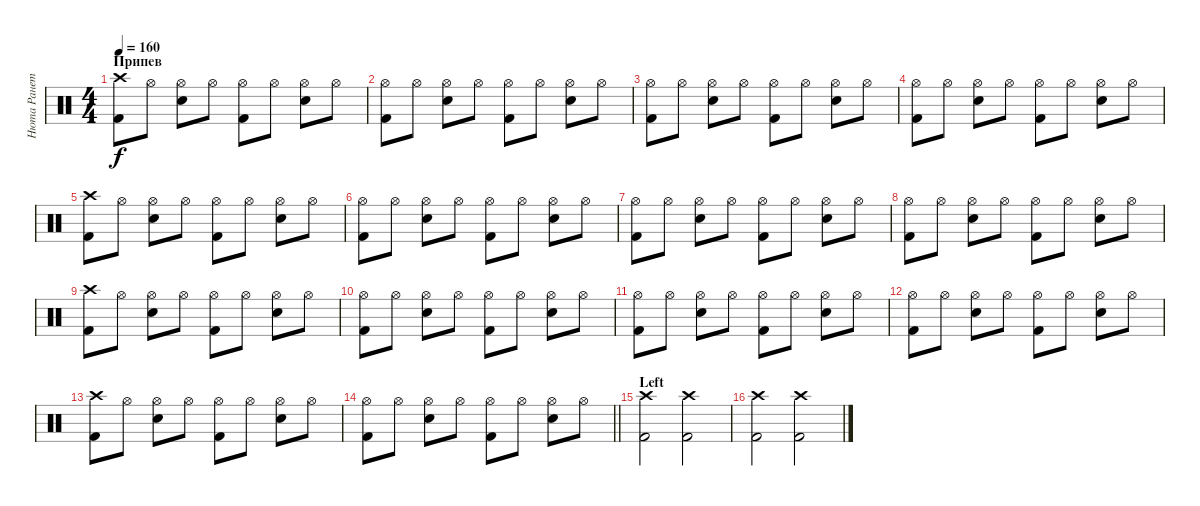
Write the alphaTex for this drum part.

\track ("Нюта Ранетка" "Нюта Ранет") {instrument percussion}
\staff {score}
\articulation defaults
\ts (4 4)
\section ("" "Припев")
\tempo 160
\clef neutral
\ks c
("Crash high (hit)" "Kick (hit) 2").8{dy f} "Hi-Hat (open)".8 ("Hi-Hat (open)" "Snare (hit) 2").8 "Hi-Hat (open)".8 ("Hi-Hat (open)" "Kick (hit) 2").8 "Hi-Hat (open)".8 ("Hi-Hat (open)" "Snare (hit) 2").8 "Hi-Hat (open)".8 |
("Hi-Hat (open)" "Kick (hit) 2").8 "Hi-Hat (open)".8 ("Hi-Hat (open)" "Snare (hit) 2").8 "Hi-Hat (open)".8 ("Hi-Hat (open)" "Kick (hit) 2").8 "Hi-Hat (open)".8 ("Hi-Hat (open)" "Snare (hit) 2").8 "Hi-Hat (open)".8 |
("Hi-Hat (open)" "Kick (hit) 2").8 "Hi-Hat (open)".8 ("Hi-Hat (open)" "Snare (hit) 2").8 "Hi-Hat (open)".8 ("Hi-Hat (open)" "Kick (hit) 2").8 "Hi-Hat (open)".8 ("Hi-Hat (open)" "Snare (hit) 2").8 "Hi-Hat (open)".8 |
("Hi-Hat (open)" "Kick (hit) 2").8 "Hi-Hat (open)".8 ("Hi-Hat (open)" "Snare (hit) 2").8 "Hi-Hat (open)".8 ("Hi-Hat (open)" "Kick (hit) 2").8 "Hi-Hat (open)".8 ("Hi-Hat (open)" "Snare (hit) 2").8 "Hi-Hat (open)".8 |
("Crash high (hit)" "Kick (hit) 2").8 "Hi-Hat (open)".8 ("Hi-Hat (open)" "Snare (hit) 2").8 "Hi-Hat (open)".8 ("Hi-Hat (open)" "Kick (hit) 2").8 "Hi-Hat (open)".8 ("Hi-Hat (open)" "Snare (hit) 2").8 "Hi-Hat (open)".8 |
("Hi-Hat (open)" "Kick (hit) 2").8 "Hi-Hat (open)".8 ("Hi-Hat (open)" "Snare (hit) 2").8 "Hi-Hat (open)".8 ("Hi-Hat (open)" "Kick (hit) 2").8 "Hi-Hat (open)".8 ("Hi-Hat (open)" "Snare (hit) 2").8 "Hi-Hat (open)".8 |
("Hi-Hat (open)" "Kick (hit) 2").8 "Hi-Hat (open)".8 ("Hi-Hat (open)" "Snare (hit) 2").8 "Hi-Hat (open)".8 ("Hi-Hat (open)" "Kick (hit) 2").8 "Hi-Hat (open)".8 ("Hi-Hat (open)" "Snare (hit) 2").8 "Hi-Hat (open)".8 |
("Hi-Hat (open)" "Kick (hit) 2").8 "Hi-Hat (open)".8 ("Hi-Hat (open)" "Snare (hit) 2").8 "Hi-Hat (open)".8 ("Hi-Hat (open)" "Kick (hit) 2").8 "Hi-Hat (open)".8 ("Hi-Hat (open)" "Snare (hit) 2").8 "Hi-Hat (open)".8 |
("Crash high (hit)" "Kick (hit) 2").8 "Hi-Hat (open)".8 ("Hi-Hat (open)" "Snare (hit) 2").8 "Hi-Hat (open)".8 ("Hi-Hat (open)" "Kick (hit) 2").8 "Hi-Hat (open)".8 ("Hi-Hat (open)" "Snare (hit) 2").8 "Hi-Hat (open)".8 |
("Hi-Hat (open)" "Kick (hit) 2").8 "Hi-Hat (open)".8 ("Hi-Hat (open)" "Snare (hit) 2").8 "Hi-Hat (open)".8 ("Hi-Hat (open)" "Kick (hit) 2").8 "Hi-Hat (open)".8 ("Hi-Hat (open)" "Snare (hit) 2").8 "Hi-Hat (open)".8 |
("Hi-Hat (open)" "Kick (hit) 2").8 "Hi-Hat (open)".8 ("Hi-Hat (open)" "Snare (hit) 2").8 "Hi-Hat (open)".8 ("Hi-Hat (open)" "Kick (hit) 2").8 "Hi-Hat (open)".8 ("Hi-Hat (open)" "Snare (hit) 2").8 "Hi-Hat (open)".8 |
("Hi-Hat (open)" "Kick (hit) 2").8 "Hi-Hat (open)".8 ("Hi-Hat (open)" "Snare (hit) 2").8 "Hi-Hat (open)".8 ("Hi-Hat (open)" "Kick (hit) 2").8 "Hi-Hat (open)".8 ("Hi-Hat (open)" "Snare (hit) 2").8 "Hi-Hat (open)".8 |
("Crash high (hit)" "Kick (hit) 2").8 "Hi-Hat (open)".8 ("Hi-Hat (open)" "Snare (hit) 2").8 "Hi-Hat (open)".8 ("Hi-Hat (open)" "Kick (hit) 2").8 "Hi-Hat (open)".8 ("Hi-Hat (open)" "Snare (hit) 2").8 "Hi-Hat (open)".8 |
\barLineRight lightlight
("Hi-Hat (open)" "Kick (hit) 2").8 "Hi-Hat (open)".8 ("Hi-Hat (open)" "Snare (hit) 2").8 "Hi-Hat (open)".8 ("Hi-Hat (open)" "Kick (hit) 2").8 "Hi-Hat (open)".8 ("Hi-Hat (open)" "Snare (hit) 2").8 "Hi-Hat (open)".8 |
\section ("" "Left")
("Crash high (hit)" "Kick (hit) 2").2 ("Crash high (hit)" "Kick (hit) 2").2 |
("Crash high (hit)" "Kick (hit) 2").2 ("Crash high (hit)" "Kick (hit) 2").2
